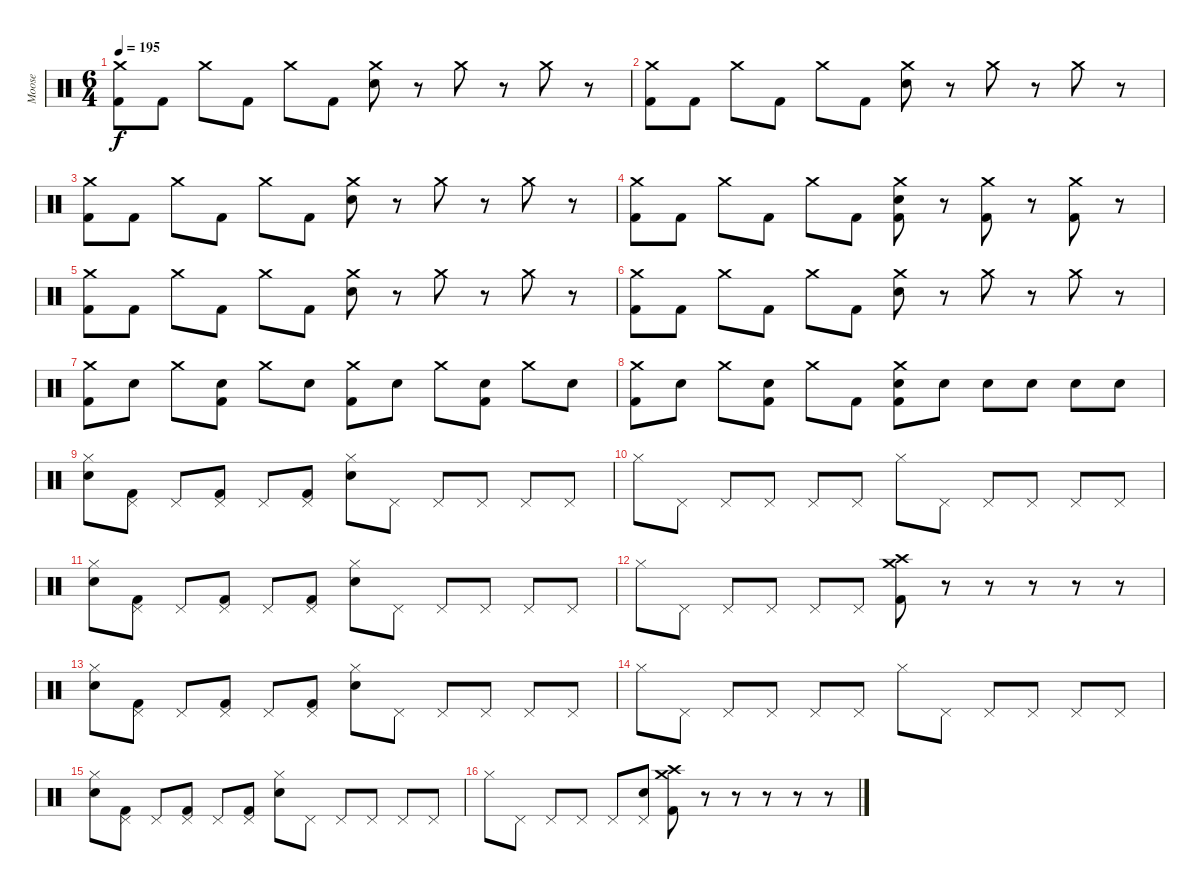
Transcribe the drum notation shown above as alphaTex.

\track ("Moose" "Moose") {instrument percussion}
\staff {score}
\articulation defaults
\ts (6 4)
\tempo 195
\clef neutral
\ks c
("Crash medium (hit)" "Kick (hit) 2").8{dy f} "Kick (hit) 2".8 "Crash medium (hit)".8 "Kick (hit) 2".8 "Crash medium (hit)".8 "Kick (hit) 2".8 ("Crash medium (hit)" "Electric Snare (hit)").8 r.8 "Crash medium (hit)".8 r.8 "Crash medium (hit)".8 r.8 |
("Crash medium (hit)" "Kick (hit) 2").8 "Kick (hit) 2".8 "Crash medium (hit)".8 "Kick (hit) 2".8 "Crash medium (hit)".8 "Kick (hit) 2".8 ("Crash medium (hit)" "Electric Snare (hit)").8 r.8 "Crash medium (hit)".8 r.8 "Crash medium (hit)".8 r.8 |
("Crash medium (hit)" "Kick (hit) 2").8 "Kick (hit) 2".8 "Crash medium (hit)".8 "Kick (hit) 2".8 "Crash medium (hit)".8 "Kick (hit) 2".8 ("Crash medium (hit)" "Electric Snare (hit)").8 r.8 "Crash medium (hit)".8 r.8 "Crash medium (hit)".8 r.8 |
("Crash medium (hit)" "Kick (hit) 2").8 "Kick (hit) 2".8 "Crash medium (hit)".8 "Kick (hit) 2".8 "Crash medium (hit)".8 "Kick (hit) 2".8 ("Crash medium (hit)" "Electric Snare (hit)" "Kick (hit) 2").8 r.8 ("Crash medium (hit)" "Kick (hit) 2").8 r.8 ("Crash medium (hit)" "Kick (hit) 2").8 r.8 |
("Crash medium (hit)" "Kick (hit) 2").8 "Kick (hit) 2".8 "Crash medium (hit)".8 "Kick (hit) 2".8 "Crash medium (hit)".8 "Kick (hit) 2".8 ("Crash medium (hit)" "Electric Snare (hit)").8 r.8 "Crash medium (hit)".8 r.8 "Crash medium (hit)".8 r.8 |
("Crash medium (hit)" "Kick (hit) 2").8 "Kick (hit) 2".8 "Crash medium (hit)".8 "Kick (hit) 2".8 "Crash medium (hit)".8 "Kick (hit) 2".8 ("Crash medium (hit)" "Electric Snare (hit)").8 r.8 "Crash medium (hit)".8 r.8 "Crash medium (hit)".8 r.8 |
("Crash medium (hit)" "Kick (hit) 2").8 "Electric Snare (hit)".8 "Crash medium (hit)".8 ("Electric Snare (hit)" "Kick (hit) 2").8 "Crash medium (hit)".8 "Electric Snare (hit)".8 ("Crash medium (hit)" "Kick (hit) 2").8 "Electric Snare (hit)".8 "Crash medium (hit)".8 ("Electric Snare (hit)" "Kick (hit) 2").8 "Crash medium (hit)".8 "Electric Snare (hit)".8 |
("Crash medium (hit)" "Kick (hit) 2").8 "Electric Snare (hit)".8 "Crash medium (hit)".8 ("Electric Snare (hit)" "Kick (hit) 2").8 "Crash medium (hit)".8 "Kick (hit) 2".8 ("Crash medium (hit)" "Electric Snare (hit)" "Kick (hit) 2").8 "Electric Snare (hit)".8 "Electric Snare (hit)".8 "Electric Snare (hit)".8 "Electric Snare (hit)".8 "Electric Snare (hit)".8 |
("Hi-Hat (closed)" "Electric Snare (hit)").8 ("Pedal Hi-Hat (hit)" "Kick (hit) 2").8 "Pedal Hi-Hat (hit)".8 ("Pedal Hi-Hat (hit)" "Kick (hit) 2").8 "Pedal Hi-Hat (hit)".8 ("Pedal Hi-Hat (hit)" "Kick (hit) 2").8 ("Hi-Hat (closed)" "Electric Snare (hit)").8 "Pedal Hi-Hat (hit)".8 "Pedal Hi-Hat (hit)".8 "Pedal Hi-Hat (hit)".8 "Pedal Hi-Hat (hit)".8 "Pedal Hi-Hat (hit)".8 |
"Hi-Hat (closed)".8 "Pedal Hi-Hat (hit)".8 "Pedal Hi-Hat (hit)".8 "Pedal Hi-Hat (hit)".8 "Pedal Hi-Hat (hit)".8 "Pedal Hi-Hat (hit)".8 "Hi-Hat (closed)".8 "Pedal Hi-Hat (hit)".8 "Pedal Hi-Hat (hit)".8 "Pedal Hi-Hat (hit)".8 "Pedal Hi-Hat (hit)".8 "Pedal Hi-Hat (hit)".8 |
("Hi-Hat (closed)" "Electric Snare (hit)").8 ("Pedal Hi-Hat (hit)" "Kick (hit) 2").8 "Pedal Hi-Hat (hit)".8 ("Pedal Hi-Hat (hit)" "Kick (hit) 2").8 "Pedal Hi-Hat (hit)".8 ("Pedal Hi-Hat (hit)" "Kick (hit) 2").8 ("Hi-Hat (closed)" "Electric Snare (hit)").8 "Pedal Hi-Hat (hit)".8 "Pedal Hi-Hat (hit)".8 "Pedal Hi-Hat (hit)".8 "Pedal Hi-Hat (hit)".8 "Pedal Hi-Hat (hit)".8 |
"Hi-Hat (closed)".8 "Pedal Hi-Hat (hit)".8 "Pedal Hi-Hat (hit)".8 "Pedal Hi-Hat (hit)".8 "Pedal Hi-Hat (hit)".8 "Pedal Hi-Hat (hit)".8 ("Crash medium (hit)" "Crash high (hit)" "Kick (hit) 2").8 r.8 r.8 r.8 r.8 r.8 |
("Hi-Hat (closed)" "Electric Snare (hit)").8 ("Pedal Hi-Hat (hit)" "Kick (hit) 2").8 "Pedal Hi-Hat (hit)".8 ("Pedal Hi-Hat (hit)" "Kick (hit) 2").8 "Pedal Hi-Hat (hit)".8 ("Pedal Hi-Hat (hit)" "Kick (hit) 2").8 ("Hi-Hat (closed)" "Electric Snare (hit)").8 "Pedal Hi-Hat (hit)".8 "Pedal Hi-Hat (hit)".8 "Pedal Hi-Hat (hit)".8 "Pedal Hi-Hat (hit)".8 "Pedal Hi-Hat (hit)".8 |
"Hi-Hat (closed)".8 "Pedal Hi-Hat (hit)".8 "Pedal Hi-Hat (hit)".8 "Pedal Hi-Hat (hit)".8 "Pedal Hi-Hat (hit)".8 "Pedal Hi-Hat (hit)".8 "Hi-Hat (closed)".8 "Pedal Hi-Hat (hit)".8 "Pedal Hi-Hat (hit)".8 "Pedal Hi-Hat (hit)".8 "Pedal Hi-Hat (hit)".8 "Pedal Hi-Hat (hit)".8 |
("Hi-Hat (closed)" "Electric Snare (hit)").8 ("Pedal Hi-Hat (hit)" "Kick (hit) 2").8 "Pedal Hi-Hat (hit)".8 ("Pedal Hi-Hat (hit)" "Kick (hit) 2").8 "Pedal Hi-Hat (hit)".8 ("Pedal Hi-Hat (hit)" "Kick (hit) 2").8 ("Hi-Hat (closed)" "Electric Snare (hit)").8 "Pedal Hi-Hat (hit)".8 "Pedal Hi-Hat (hit)".8 "Pedal Hi-Hat (hit)".8 "Pedal Hi-Hat (hit)".8 "Pedal Hi-Hat (hit)".8 |
"Hi-Hat (closed)".8 "Pedal Hi-Hat (hit)".8 "Pedal Hi-Hat (hit)".8 "Pedal Hi-Hat (hit)".8 "Pedal Hi-Hat (hit)".8 ("Pedal Hi-Hat (hit)" "Electric Snare (hit)").8 ("Crash medium (hit)" "Crash high (hit)" "Kick (hit) 2").8 r.8 r.8 r.8 r.8 r.8
